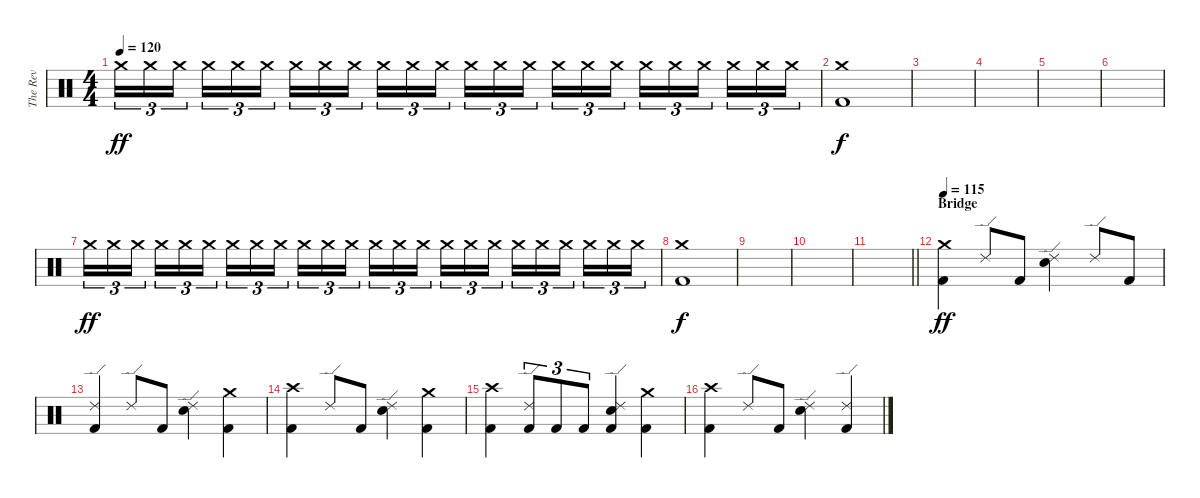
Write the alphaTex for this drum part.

\track ("The Rev" "The Rev") {instrument percussion}
\staff {score}
\articulation defaults
\ts (4 4)
\tempo 120
\clef neutral
\ks c "Crash medium (hit)".16{tu (3 2) dy ff} "Crash medium (hit)".16{tu (3 2)} "Crash medium (hit)".16{tu (3 2) beam splitsecondary} "Crash medium (hit)".16{tu (3 2)} "Crash medium (hit)".16{tu (3 2)} "Crash medium (hit)".16{tu (3 2)} "Crash medium (hit)".16{tu (3 2)} "Crash medium (hit)".16{tu (3 2)} "Crash medium (hit)".16{tu (3 2) beam splitsecondary} "Crash medium (hit)".16{tu (3 2)} "Crash medium (hit)".16{tu (3 2) volume 16} "Crash medium (hit)".16{tu (3 2)} "Crash medium (hit)".16{tu (3 2)} "Crash medium (hit)".16{tu (3 2)} "Crash medium (hit)".16{tu (3 2) beam splitsecondary} "Crash medium (hit)".16{tu (3 2)} "Crash medium (hit)".16{tu (3 2)} "Crash medium (hit)".16{tu (3 2)} "Crash medium (hit)".16{tu (3 2)} "Crash medium (hit)".16{tu (3 2)} "Crash medium (hit)".16{tu (3 2) beam splitsecondary} "Crash medium (hit)".16{tu (3 2)} "Crash medium (hit)".16{tu (3 2)} "Crash medium (hit)".16{tu (3 2)}
|
("Crash medium (hit)" "Kick (hit) 2").1{dy f} |
|
|
|
|
"Crash medium (hit)".16{tu (3 2) dy ff} "Crash medium (hit)".16{tu (3 2)} "Crash medium (hit)".16{tu (3 2) beam splitsecondary} "Crash medium (hit)".16{tu (3 2)} "Crash medium (hit)".16{tu (3 2)} "Crash medium (hit)".16{tu (3 2)} "Crash medium (hit)".16{tu (3 2)} "Crash medium (hit)".16{tu (3 2)} "Crash medium (hit)".16{tu (3 2) beam splitsecondary} "Crash medium (hit)".16{tu (3 2)} "Crash medium (hit)".16{tu (3 2) volume 16} "Crash medium (hit)".16{tu (3 2)} "Crash medium (hit)".16{tu (3 2)} "Crash medium (hit)".16{tu (3 2)} "Crash medium (hit)".16{tu (3 2) beam splitsecondary} "Crash medium (hit)".16{tu (3 2)} "Crash medium (hit)".16{tu (3 2)} "Crash medium (hit)".16{tu (3 2)} "Crash medium (hit)".16{tu (3 2)} "Crash medium (hit)".16{tu (3 2)} "Crash medium (hit)".16{tu (3 2) beam splitsecondary} "Crash medium (hit)".16{tu (3 2)} "Crash medium (hit)".16{tu (3 2)} "Crash medium (hit)".16{tu (3 2)} |
("Crash medium (hit)" "Kick (hit) 2").1{dy f} |
|
|
\barLineRight lightlight
|
\section ("" "Bridge")
\tempo 115
("Crash medium (hit)" "Kick (hit) 2").4{dy ff} "Ride (edge) 2".8 "Kick (hit) 2".8 ("Ride (edge) 2" "Electric Snare (hit)").4 "Ride (edge) 2".8 "Kick (hit) 2".8 |
("Ride (edge) 2" "Kick (hit) 2").4 "Ride (edge) 2".8 "Kick (hit) 2".8 ("Ride (edge) 2" "Electric Snare (hit)").4 ("Crash medium (hit)" "Kick (hit) 2").4 |
("Crash high (hit)" "Kick (hit) 2").4 "Ride (edge) 2".8 "Kick (hit) 2".8 ("Ride (edge) 2" "Electric Snare (hit)").4 ("Crash medium (hit)" "Kick (hit) 2").4 |
("Crash high (hit)" "Kick (hit) 2").4 ("Ride (edge) 2" "Kick (hit) 2").8{tu (3 2)} "Kick (hit) 2".8{tu (3 2)} "Kick (hit) 2".8{tu (3 2)} ("Ride (edge) 2" "Electric Snare (hit)" "Kick (hit) 2").4 ("Crash medium (hit)" "Kick (hit) 2").4 |
("Crash high (hit)" "Kick (hit) 2").4 "Ride (edge) 2".8 "Kick (hit) 2".8 ("Ride (edge) 2" "Electric Snare (hit)").4 ("Ride (edge) 2" "Kick (hit) 2").4
